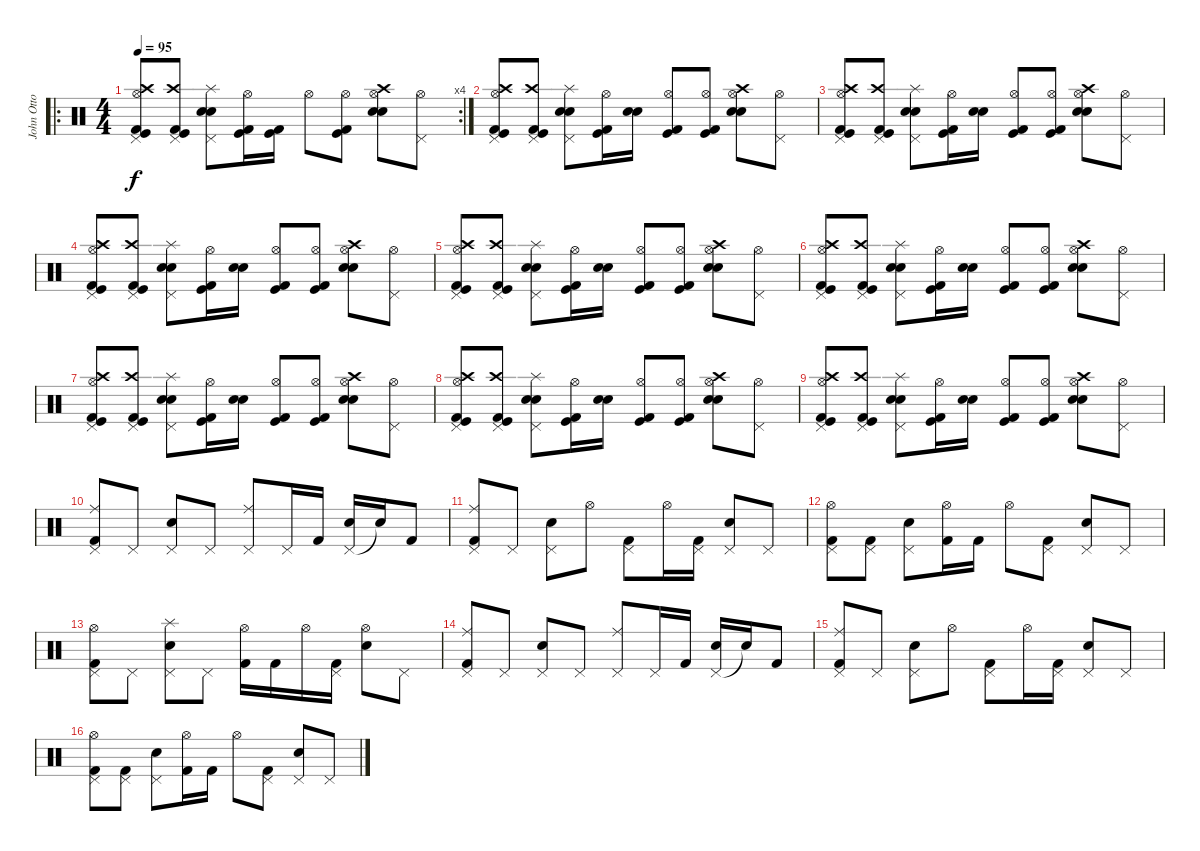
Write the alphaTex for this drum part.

\track ("John Otto (Drums)" "John Otto ") {instrument percussion}
\staff {score}
\articulation defaults
\ro
\rc 4
\ts (4 4)
\tempo 95
\clef neutral
\ks c
("Kick (hit)" "Crash high (hit)" "Hi-Hat (open)" "Pedal Hi-Hat (hit)" "Kick (hit) 2").8{dy f} ("Kick (hit)" "Crash high (hit)" "Pedal Hi-Hat (hit)" "Kick (hit) 2").8 ("Electric Snare (hit)" "Splash (hit)" "Pedal Hi-Hat (hit)" "Electric Snare (hit)").8 ("Kick (hit)" "Hi-Hat (open)" "Kick (hit) 2").16 ("Kick (hit)" "Kick (hit) 2").16 "Hi-Hat (open)".8 ("Kick (hit)" "Hi-Hat (open)" "Kick (hit) 2").8 ("Electric Snare (hit)" "Crash high (hit)" "Hi-Hat (open)" "Electric Snare (hit)").8 ("Hi-Hat (open)" "Pedal Hi-Hat (hit)").8 |
("Kick (hit)" "Crash high (hit)" "Hi-Hat (open)" "Pedal Hi-Hat (hit)" "Kick (hit) 2").8 ("Kick (hit)" "Crash high (hit)" "Pedal Hi-Hat (hit)" "Kick (hit) 2").8 ("Electric Snare (hit)" "Splash (hit)" "Pedal Hi-Hat (hit)" "Electric Snare (hit)").8 ("Kick (hit)" "Hi-Hat (open)" "Kick (hit) 2").16 ("Electric Snare (hit)" "Electric Snare (hit)").16 ("Kick (hit)" "Hi-Hat (open)" "Kick (hit) 2").8 ("Kick (hit)" "Hi-Hat (open)" "Kick (hit) 2").8 ("Electric Snare (hit)" "Crash high (hit)" "Hi-Hat (open)" "Electric Snare (hit)").8 ("Hi-Hat (open)" "Pedal Hi-Hat (hit)").8 |
("Kick (hit)" "Crash high (hit)" "Hi-Hat (open)" "Pedal Hi-Hat (hit)" "Kick (hit) 2").8 ("Kick (hit)" "Crash high (hit)" "Pedal Hi-Hat (hit)" "Kick (hit) 2").8 ("Electric Snare (hit)" "Splash (hit)" "Pedal Hi-Hat (hit)" "Electric Snare (hit)").8 ("Kick (hit)" "Hi-Hat (open)" "Kick (hit) 2").16 ("Electric Snare (hit)" "Electric Snare (hit)").16 ("Kick (hit)" "Hi-Hat (open)" "Kick (hit) 2").8 ("Kick (hit)" "Hi-Hat (open)" "Kick (hit) 2").8 ("Electric Snare (hit)" "Crash high (hit)" "Hi-Hat (open)" "Electric Snare (hit)").8 ("Hi-Hat (open)" "Pedal Hi-Hat (hit)").8 |
("Kick (hit)" "Crash high (hit)" "Hi-Hat (open)" "Pedal Hi-Hat (hit)" "Kick (hit) 2").8 ("Kick (hit)" "Crash high (hit)" "Pedal Hi-Hat (hit)" "Kick (hit) 2").8 ("Electric Snare (hit)" "Splash (hit)" "Pedal Hi-Hat (hit)" "Electric Snare (hit)").8 ("Kick (hit)" "Hi-Hat (open)" "Kick (hit) 2").16 ("Electric Snare (hit)" "Electric Snare (hit)").16 ("Kick (hit)" "Hi-Hat (open)" "Kick (hit) 2").8 ("Kick (hit)" "Hi-Hat (open)" "Kick (hit) 2").8 ("Electric Snare (hit)" "Crash high (hit)" "Hi-Hat (open)" "Electric Snare (hit)").8 ("Hi-Hat (open)" "Pedal Hi-Hat (hit)").8 |
("Kick (hit)" "Crash high (hit)" "Hi-Hat (open)" "Pedal Hi-Hat (hit)" "Kick (hit) 2").8 ("Kick (hit)" "Crash high (hit)" "Pedal Hi-Hat (hit)" "Kick (hit) 2").8 ("Electric Snare (hit)" "Splash (hit)" "Pedal Hi-Hat (hit)" "Electric Snare (hit)").8 ("Kick (hit)" "Hi-Hat (open)" "Kick (hit) 2").16 ("Electric Snare (hit)" "Electric Snare (hit)").16 ("Kick (hit)" "Hi-Hat (open)" "Kick (hit) 2").8 ("Kick (hit)" "Hi-Hat (open)" "Kick (hit) 2").8 ("Electric Snare (hit)" "Crash high (hit)" "Hi-Hat (open)" "Electric Snare (hit)").8 ("Hi-Hat (open)" "Pedal Hi-Hat (hit)").8 |
("Kick (hit)" "Crash high (hit)" "Hi-Hat (open)" "Pedal Hi-Hat (hit)" "Kick (hit) 2").8 ("Kick (hit)" "Crash high (hit)" "Pedal Hi-Hat (hit)" "Kick (hit) 2").8 ("Electric Snare (hit)" "Splash (hit)" "Pedal Hi-Hat (hit)" "Electric Snare (hit)").8 ("Kick (hit)" "Hi-Hat (open)" "Kick (hit) 2").16 ("Electric Snare (hit)" "Electric Snare (hit)").16 ("Kick (hit)" "Hi-Hat (open)" "Kick (hit) 2").8 ("Kick (hit)" "Hi-Hat (open)" "Kick (hit) 2").8 ("Electric Snare (hit)" "Crash high (hit)" "Hi-Hat (open)" "Electric Snare (hit)").8 ("Hi-Hat (open)" "Pedal Hi-Hat (hit)").8 |
("Kick (hit)" "Crash high (hit)" "Hi-Hat (open)" "Pedal Hi-Hat (hit)" "Kick (hit) 2").8 ("Kick (hit)" "Crash high (hit)" "Pedal Hi-Hat (hit)" "Kick (hit) 2").8 ("Electric Snare (hit)" "Splash (hit)" "Pedal Hi-Hat (hit)" "Electric Snare (hit)").8 ("Kick (hit)" "Hi-Hat (open)" "Kick (hit) 2").16 ("Electric Snare (hit)" "Electric Snare (hit)").16 ("Kick (hit)" "Hi-Hat (open)" "Kick (hit) 2").8 ("Kick (hit)" "Hi-Hat (open)" "Kick (hit) 2").8 ("Electric Snare (hit)" "Crash high (hit)" "Hi-Hat (open)" "Electric Snare (hit)").8 ("Hi-Hat (open)" "Pedal Hi-Hat (hit)").8 |
("Kick (hit)" "Crash high (hit)" "Hi-Hat (open)" "Pedal Hi-Hat (hit)" "Kick (hit) 2").8 ("Kick (hit)" "Crash high (hit)" "Pedal Hi-Hat (hit)" "Kick (hit) 2").8 ("Electric Snare (hit)" "Splash (hit)" "Pedal Hi-Hat (hit)" "Electric Snare (hit)").8 ("Kick (hit)" "Hi-Hat (open)" "Kick (hit) 2").16 ("Electric Snare (hit)" "Electric Snare (hit)").16 ("Kick (hit)" "Hi-Hat (open)" "Kick (hit) 2").8 ("Kick (hit)" "Hi-Hat (open)" "Kick (hit) 2").8 ("Electric Snare (hit)" "Crash high (hit)" "Hi-Hat (open)" "Electric Snare (hit)").8 ("Hi-Hat (open)" "Pedal Hi-Hat (hit)").8 |
("Kick (hit)" "Crash high (hit)" "Hi-Hat (open)" "Pedal Hi-Hat (hit)" "Kick (hit) 2").8 ("Kick (hit)" "Crash high (hit)" "Pedal Hi-Hat (hit)" "Kick (hit) 2").8 ("Electric Snare (hit)" "Splash (hit)" "Pedal Hi-Hat (hit)" "Electric Snare (hit)").8 ("Kick (hit)" "Hi-Hat (open)" "Kick (hit) 2").16 ("Electric Snare (hit)" "Electric Snare (hit)").16 ("Kick (hit)" "Hi-Hat (open)" "Kick (hit) 2").8 ("Kick (hit)" "Hi-Hat (open)" "Kick (hit) 2").8 ("Electric Snare (hit)" "Crash high (hit)" "Hi-Hat (open)" "Electric Snare (hit)").8 ("Hi-Hat (open)" "Pedal Hi-Hat (hit)").8 |
("Ride (middle)" "Pedal Hi-Hat (hit)" "Kick (hit) 2").8 "Pedal Hi-Hat (hit)".8 ("Pedal Hi-Hat (hit)" "Electric Snare (hit)").8 "Pedal Hi-Hat (hit)".8 ("Pedal Hi-Hat (hit)" "Ride (middle)").8 "Pedal Hi-Hat (hit)".16 "Kick (hit) 2".16 ("Pedal Hi-Hat (hit)" "Electric Snare (hit)").16 "Snare (hit)"{t}.16 "Kick (hit) 2".8 |
("Ride (middle)" "Pedal Hi-Hat (hit)" "Kick (hit) 2").8 "Pedal Hi-Hat (hit)".8 ("Pedal Hi-Hat (hit)" "Electric Snare (hit)").8 "Hi-Hat (open)".8 ("Pedal Hi-Hat (hit)" "Kick (hit) 2").8 "Hi-Hat (open)".16 ("Pedal Hi-Hat (hit)" "Kick (hit) 2").16 ("Pedal Hi-Hat (hit)" "Electric Snare (hit)").8 "Pedal Hi-Hat (hit)".8 |
("Hi-Hat (open)" "Pedal Hi-Hat (hit)" "Kick (hit) 2").8 ("Pedal Hi-Hat (hit)" "Kick (hit) 2").8 ("Pedal Hi-Hat (hit)" "Electric Snare (hit)").8 ("Hi-Hat (open)" "Kick (hit) 2").16 "Kick (hit) 2".16 "Hi-Hat (open)".8 ("Pedal Hi-Hat (hit)" "Kick (hit) 2").8 ("Pedal Hi-Hat (hit)" "Electric Snare (hit)").8 "Pedal Hi-Hat (hit)".8 |
("Hi-Hat (open)" "Pedal Hi-Hat (hit)" "Kick (hit) 2").8 "Pedal Hi-Hat (hit)".8 ("Splash (hit)" "Pedal Hi-Hat (hit)" "Electric Snare (hit)").8 "Pedal Hi-Hat (hit)".8 ("Hi-Hat (open)" "Kick (hit) 2").16 "Kick (hit) 2".16 "Hi-Hat (open)".16 ("Pedal Hi-Hat (hit)" "Kick (hit) 2").16 ("Hi-Hat (open)" "Electric Snare (hit)").8 "Pedal Hi-Hat (hit)".8 |
("Ride (middle)" "Pedal Hi-Hat (hit)" "Kick (hit) 2").8 "Pedal Hi-Hat (hit)".8 ("Pedal Hi-Hat (hit)" "Electric Snare (hit)").8 "Pedal Hi-Hat (hit)".8 ("Pedal Hi-Hat (hit)" "Ride (middle)").8 "Pedal Hi-Hat (hit)".16 "Kick (hit) 2".16 ("Pedal Hi-Hat (hit)" "Electric Snare (hit)").16 "Snare (hit)"{t}.16 "Kick (hit) 2".8 |
("Ride (middle)" "Pedal Hi-Hat (hit)" "Kick (hit) 2").8 "Pedal Hi-Hat (hit)".8 ("Pedal Hi-Hat (hit)" "Electric Snare (hit)").8 "Hi-Hat (open)".8 ("Pedal Hi-Hat (hit)" "Kick (hit) 2").8 "Hi-Hat (open)".16 ("Pedal Hi-Hat (hit)" "Kick (hit) 2").16 ("Pedal Hi-Hat (hit)" "Electric Snare (hit)").8 "Pedal Hi-Hat (hit)".8 |
("Hi-Hat (open)" "Pedal Hi-Hat (hit)" "Kick (hit) 2").8 ("Pedal Hi-Hat (hit)" "Kick (hit) 2").8 ("Pedal Hi-Hat (hit)" "Electric Snare (hit)").8 ("Hi-Hat (open)" "Kick (hit) 2").16 "Kick (hit) 2".16 "Hi-Hat (open)".8 ("Pedal Hi-Hat (hit)" "Kick (hit) 2").8 ("Pedal Hi-Hat (hit)" "Electric Snare (hit)").8 "Pedal Hi-Hat (hit)".8
